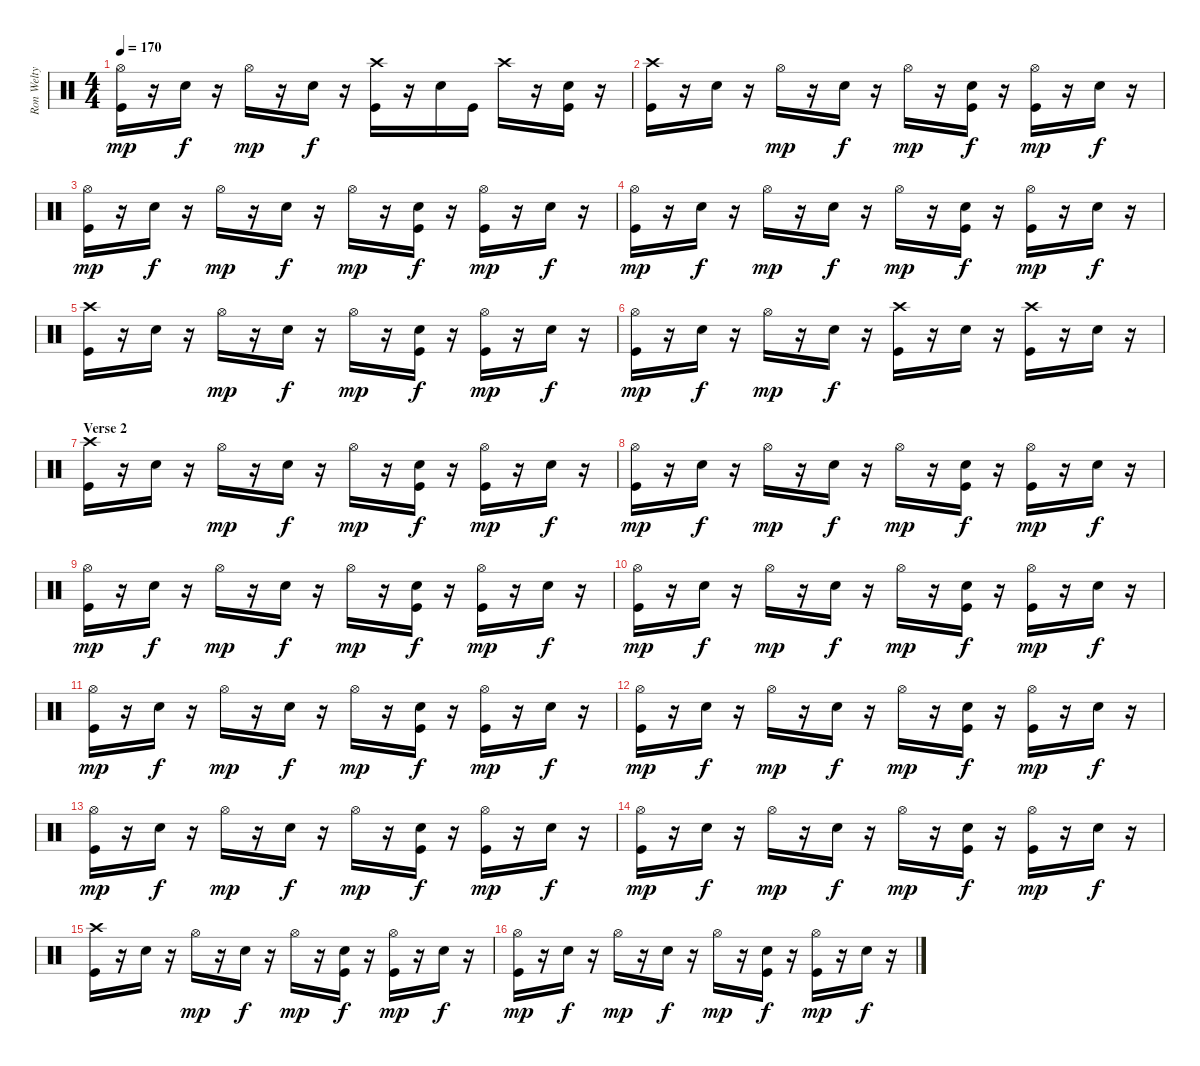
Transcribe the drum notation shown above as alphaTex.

\track ("Ron Welty" "Ron Welty") {instrument percussion}
\staff {score}
\articulation defaults
\ts (4 4)
\tempo 170
\clef neutral
\ks c
("Hi-Hat (open)" "Kick (hit)").16{dy mp} r.16 "Snare (hit) 2".16{dy f} r.16 "Hi-Hat (open)".16{dy mp} r.16 "Snare (hit) 2".16{dy f} r.16 ("Crash high (hit)" "Kick (hit)").16 r.16 "Snare (hit) 2".16 "Kick (hit)".16 "Crash high (hit)".16 r.16 ("Snare (hit) 2" "Kick (hit)").16 r.16 |
("Crash high (hit)" "Kick (hit)").16 r.16 "Snare (hit) 2".16 r.16 "Hi-Hat (open)".16{dy mp} r.16 "Snare (hit) 2".16{dy f} r.16 "Hi-Hat (open)".16{dy mp} r.16 ("Snare (hit) 2" "Kick (hit)").16{dy f} r.16 ("Hi-Hat (open)" "Kick (hit)").16{dy mp} r.16 "Snare (hit) 2".16{dy f} r.16 |
("Hi-Hat (open)" "Kick (hit)").16{dy mp} r.16 "Snare (hit) 2".16{dy f} r.16 "Hi-Hat (open)".16{dy mp} r.16 "Snare (hit) 2".16{dy f} r.16 "Hi-Hat (open)".16{dy mp} r.16 ("Snare (hit) 2" "Kick (hit)").16{dy f} r.16 ("Hi-Hat (open)" "Kick (hit)").16{dy mp} r.16 "Snare (hit) 2".16{dy f} r.16 |
("Hi-Hat (open)" "Kick (hit)").16{dy mp} r.16 "Snare (hit) 2".16{dy f} r.16 "Hi-Hat (open)".16{dy mp} r.16 "Snare (hit) 2".16{dy f} r.16 "Hi-Hat (open)".16{dy mp} r.16 ("Snare (hit) 2" "Kick (hit)").16{dy f} r.16 ("Hi-Hat (open)" "Kick (hit)").16{dy mp} r.16 "Snare (hit) 2".16{dy f} r.16 |
("Crash high (hit)" "Kick (hit)").16 r.16 "Snare (hit) 2".16 r.16 "Hi-Hat (open)".16{dy mp} r.16 "Snare (hit) 2".16{dy f} r.16 "Hi-Hat (open)".16{dy mp} r.16 ("Snare (hit) 2" "Kick (hit)").16{dy f} r.16 ("Hi-Hat (open)" "Kick (hit)").16{dy mp} r.16 "Snare (hit) 2".16{dy f} r.16 |
("Hi-Hat (open)" "Kick (hit)").16{dy mp} r.16 "Snare (hit) 2".16{dy f} r.16 "Hi-Hat (open)".16{dy mp} r.16 "Snare (hit) 2".16{dy f} r.16 ("Crash high (hit)" "Kick (hit)").16 r.16 "Snare (hit) 2".16 r.16 ("Crash high (hit)" "Kick (hit)").16 r.16 "Snare (hit) 2".16 r.16 |
\section ("" "Verse 2")
("Crash high (hit)" "Kick (hit)").16 r.16 "Snare (hit) 2".16 r.16 "Hi-Hat (open)".16{dy mp} r.16 "Snare (hit) 2".16{dy f} r.16 "Hi-Hat (open)".16{dy mp} r.16 ("Snare (hit) 2" "Kick (hit)").16{dy f} r.16 ("Hi-Hat (open)" "Kick (hit)").16{dy mp} r.16 "Snare (hit) 2".16{dy f} r.16 |
("Hi-Hat (open)" "Kick (hit)").16{dy mp} r.16 "Snare (hit) 2".16{dy f} r.16 "Hi-Hat (open)".16{dy mp} r.16 "Snare (hit) 2".16{dy f} r.16 "Hi-Hat (open)".16{dy mp} r.16 ("Snare (hit) 2" "Kick (hit)").16{dy f} r.16 ("Hi-Hat (open)" "Kick (hit)").16{dy mp} r.16 "Snare (hit) 2".16{dy f} r.16 |
("Hi-Hat (open)" "Kick (hit)").16{dy mp} r.16 "Snare (hit) 2".16{dy f} r.16 "Hi-Hat (open)".16{dy mp} r.16 "Snare (hit) 2".16{dy f} r.16 "Hi-Hat (open)".16{dy mp} r.16 ("Snare (hit) 2" "Kick (hit)").16{dy f} r.16 ("Hi-Hat (open)" "Kick (hit)").16{dy mp} r.16 "Snare (hit) 2".16{dy f} r.16 |
("Hi-Hat (open)" "Kick (hit)").16{dy mp} r.16 "Snare (hit) 2".16{dy f} r.16 "Hi-Hat (open)".16{dy mp} r.16 "Snare (hit) 2".16{dy f} r.16 "Hi-Hat (open)".16{dy mp} r.16 ("Snare (hit) 2" "Kick (hit)").16{dy f} r.16 ("Hi-Hat (open)" "Kick (hit)").16{dy mp} r.16 "Snare (hit) 2".16{dy f} r.16 |
("Hi-Hat (open)" "Kick (hit)").16{dy mp} r.16 "Snare (hit) 2".16{dy f} r.16 "Hi-Hat (open)".16{dy mp} r.16 "Snare (hit) 2".16{dy f} r.16 "Hi-Hat (open)".16{dy mp} r.16 ("Snare (hit) 2" "Kick (hit)").16{dy f} r.16 ("Hi-Hat (open)" "Kick (hit)").16{dy mp} r.16 "Snare (hit) 2".16{dy f} r.16 |
("Hi-Hat (open)" "Kick (hit)").16{dy mp} r.16 "Snare (hit) 2".16{dy f} r.16 "Hi-Hat (open)".16{dy mp} r.16 "Snare (hit) 2".16{dy f} r.16 "Hi-Hat (open)".16{dy mp} r.16 ("Snare (hit) 2" "Kick (hit)").16{dy f} r.16 ("Hi-Hat (open)" "Kick (hit)").16{dy mp} r.16 "Snare (hit) 2".16{dy f} r.16 |
("Hi-Hat (open)" "Kick (hit)").16{dy mp} r.16 "Snare (hit) 2".16{dy f} r.16 "Hi-Hat (open)".16{dy mp} r.16 "Snare (hit) 2".16{dy f} r.16 "Hi-Hat (open)".16{dy mp} r.16 ("Snare (hit) 2" "Kick (hit)").16{dy f} r.16 ("Hi-Hat (open)" "Kick (hit)").16{dy mp} r.16 "Snare (hit) 2".16{dy f} r.16 |
("Hi-Hat (open)" "Kick (hit)").16{dy mp} r.16 "Snare (hit) 2".16{dy f} r.16 "Hi-Hat (open)".16{dy mp} r.16 "Snare (hit) 2".16{dy f} r.16 "Hi-Hat (open)".16{dy mp} r.16 ("Snare (hit) 2" "Kick (hit)").16{dy f} r.16 ("Hi-Hat (open)" "Kick (hit)").16{dy mp} r.16 "Snare (hit) 2".16{dy f} r.16 |
("Crash high (hit)" "Kick (hit)").16 r.16 "Snare (hit) 2".16 r.16 "Hi-Hat (open)".16{dy mp} r.16 "Snare (hit) 2".16{dy f} r.16 "Hi-Hat (open)".16{dy mp} r.16 ("Snare (hit) 2" "Kick (hit)").16{dy f} r.16 ("Hi-Hat (open)" "Kick (hit)").16{dy mp} r.16 "Snare (hit) 2".16{dy f} r.16 |
("Hi-Hat (open)" "Kick (hit)").16{dy mp} r.16 "Snare (hit) 2".16{dy f} r.16 "Hi-Hat (open)".16{dy mp} r.16 "Snare (hit) 2".16{dy f} r.16 "Hi-Hat (open)".16{dy mp} r.16 ("Snare (hit) 2" "Kick (hit)").16{dy f} r.16 ("Hi-Hat (open)" "Kick (hit)").16{dy mp} r.16 "Snare (hit) 2".16{dy f} r.16
